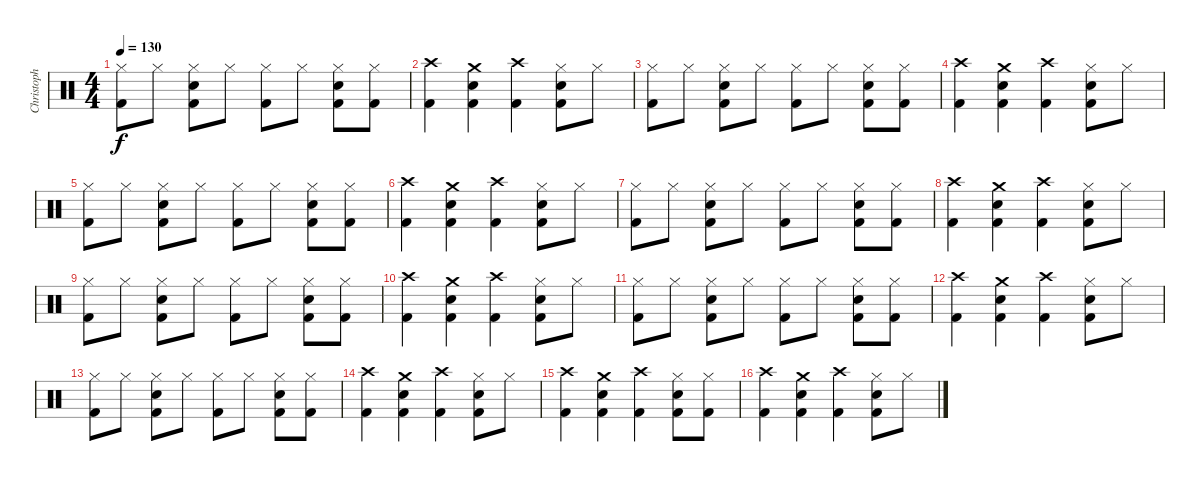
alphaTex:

\track ("Christoph" "Christoph") {instrument percussion}
\staff {score}
\articulation defaults
\ts (4 4)
\tempo 130
\clef neutral
\ks c
("Hi-Hat (closed)" "Kick (hit) 2").8{dy f} "Hi-Hat (closed)".8 ("Hi-Hat (closed)" "Electric Snare (hit)" "Kick (hit) 2").8 "Hi-Hat (closed)".8 ("Hi-Hat (closed)" "Kick (hit) 2").8 "Hi-Hat (closed)".8 ("Hi-Hat (closed)" "Electric Snare (hit)" "Kick (hit) 2").8 ("Hi-Hat (closed)" "Kick (hit) 2").8 |
("Crash high (hit)" "Kick (hit) 2").4 ("Crash medium (hit)" "Electric Snare (hit)" "Kick (hit) 2").4 ("Crash high (hit)" "Kick (hit) 2").4 ("Hi-Hat (closed)" "Electric Snare (hit)" "Kick (hit) 2").8 "Hi-Hat (closed)".8 |
("Hi-Hat (closed)" "Kick (hit) 2").8 "Hi-Hat (closed)".8 ("Hi-Hat (closed)" "Electric Snare (hit)" "Kick (hit) 2").8 "Hi-Hat (closed)".8 ("Hi-Hat (closed)" "Kick (hit) 2").8 "Hi-Hat (closed)".8 ("Hi-Hat (closed)" "Electric Snare (hit)" "Kick (hit) 2").8 ("Hi-Hat (closed)" "Kick (hit) 2").8 |
("Crash high (hit)" "Kick (hit) 2").4 ("Crash medium (hit)" "Electric Snare (hit)" "Kick (hit) 2").4 ("Crash high (hit)" "Kick (hit) 2").4 ("Hi-Hat (closed)" "Electric Snare (hit)" "Kick (hit) 2").8 "Hi-Hat (closed)".8 |
("Hi-Hat (closed)" "Kick (hit) 2").8 "Hi-Hat (closed)".8 ("Hi-Hat (closed)" "Electric Snare (hit)" "Kick (hit) 2").8 "Hi-Hat (closed)".8 ("Hi-Hat (closed)" "Kick (hit) 2").8 "Hi-Hat (closed)".8 ("Hi-Hat (closed)" "Electric Snare (hit)" "Kick (hit) 2").8 ("Hi-Hat (closed)" "Kick (hit) 2").8 |
("Crash high (hit)" "Kick (hit) 2").4 ("Crash medium (hit)" "Electric Snare (hit)" "Kick (hit) 2").4 ("Crash high (hit)" "Kick (hit) 2").4 ("Hi-Hat (closed)" "Electric Snare (hit)" "Kick (hit) 2").8 "Hi-Hat (closed)".8 |
("Hi-Hat (closed)" "Kick (hit) 2").8 "Hi-Hat (closed)".8 ("Hi-Hat (closed)" "Electric Snare (hit)" "Kick (hit) 2").8 "Hi-Hat (closed)".8 ("Hi-Hat (closed)" "Kick (hit) 2").8 "Hi-Hat (closed)".8 ("Hi-Hat (closed)" "Electric Snare (hit)" "Kick (hit) 2").8 ("Hi-Hat (closed)" "Kick (hit) 2").8 |
("Crash high (hit)" "Kick (hit) 2").4 ("Crash medium (hit)" "Electric Snare (hit)" "Kick (hit) 2").4 ("Crash high (hit)" "Kick (hit) 2").4 ("Hi-Hat (closed)" "Electric Snare (hit)" "Kick (hit) 2").8 "Hi-Hat (closed)".8 |
("Hi-Hat (closed)" "Kick (hit) 2").8 "Hi-Hat (closed)".8 ("Hi-Hat (closed)" "Electric Snare (hit)" "Kick (hit) 2").8 "Hi-Hat (closed)".8 ("Hi-Hat (closed)" "Kick (hit) 2").8 "Hi-Hat (closed)".8 ("Hi-Hat (closed)" "Electric Snare (hit)" "Kick (hit) 2").8 ("Hi-Hat (closed)" "Kick (hit) 2").8 |
("Crash high (hit)" "Kick (hit) 2").4 ("Crash medium (hit)" "Electric Snare (hit)" "Kick (hit) 2").4 ("Crash high (hit)" "Kick (hit) 2").4 ("Hi-Hat (closed)" "Electric Snare (hit)" "Kick (hit) 2").8 "Hi-Hat (closed)".8 |
("Hi-Hat (closed)" "Kick (hit) 2").8 "Hi-Hat (closed)".8 ("Hi-Hat (closed)" "Electric Snare (hit)" "Kick (hit) 2").8 "Hi-Hat (closed)".8 ("Hi-Hat (closed)" "Kick (hit) 2").8 "Hi-Hat (closed)".8 ("Hi-Hat (closed)" "Electric Snare (hit)" "Kick (hit) 2").8 ("Hi-Hat (closed)" "Kick (hit) 2").8 |
("Crash high (hit)" "Kick (hit) 2").4 ("Crash medium (hit)" "Electric Snare (hit)" "Kick (hit) 2").4 ("Crash high (hit)" "Kick (hit) 2").4 ("Hi-Hat (closed)" "Electric Snare (hit)" "Kick (hit) 2").8 "Hi-Hat (closed)".8 |
("Hi-Hat (closed)" "Kick (hit) 2").8 "Hi-Hat (closed)".8 ("Hi-Hat (closed)" "Electric Snare (hit)" "Kick (hit) 2").8 "Hi-Hat (closed)".8 ("Hi-Hat (closed)" "Kick (hit) 2").8 "Hi-Hat (closed)".8 ("Hi-Hat (closed)" "Electric Snare (hit)" "Kick (hit) 2").8 ("Hi-Hat (closed)" "Kick (hit) 2").8 |
("Crash high (hit)" "Kick (hit) 2").4 ("Crash medium (hit)" "Electric Snare (hit)" "Kick (hit) 2").4 ("Crash high (hit)" "Kick (hit) 2").4 ("Hi-Hat (closed)" "Electric Snare (hit)" "Kick (hit) 2").8 "Hi-Hat (closed)".8 |
("Crash high (hit)" "Kick (hit) 2").4 ("Crash medium (hit)" "Electric Snare (hit)" "Kick (hit) 2").4 ("Crash high (hit)" "Kick (hit) 2").4 ("Hi-Hat (closed)" "Electric Snare (hit)" "Kick (hit) 2").8 ("Hi-Hat (closed)" "Kick (hit) 2").8 |
("Crash high (hit)" "Kick (hit) 2").4 ("Crash medium (hit)" "Electric Snare (hit)" "Kick (hit) 2").4 ("Crash high (hit)" "Kick (hit) 2").4 ("Hi-Hat (closed)" "Electric Snare (hit)" "Kick (hit) 2").8 "Hi-Hat (closed)".8
